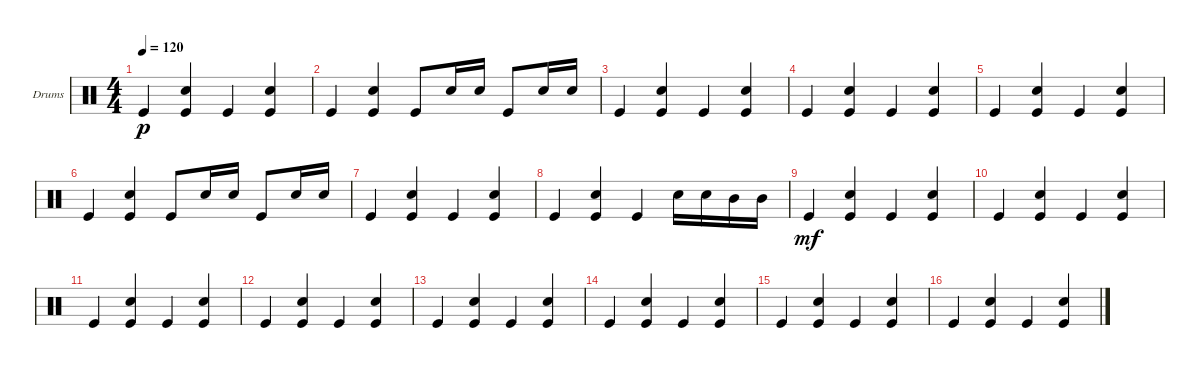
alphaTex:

\bracketExtendMode groupsimilarinstruments
\firstSystemTrackNameOrientation horizontal
\otherSystemsTrackNameOrientation horizontal
\track ("Drumkit" "Drums") {instrument percussion}
\staff {score}
\articulation defaults
\ts (4 4)
\tempo 120
\clef neutral
\ks c "Kick (hit)".4{dy p}
("Snare (hit) 2" "Kick (hit)").4 "Kick (hit)".4 ("Snare (hit) 2" "Kick (hit)").4 |
"Kick (hit)".4 ("Snare (hit) 2" "Kick (hit)").4 "Kick (hit)".8 "Snare (hit) 2".16 "Snare (hit) 2".16 "Kick (hit)".8 "Snare (hit) 2".16 "Snare (hit) 2".16 |
"Kick (hit)".4 ("Snare (hit) 2" "Kick (hit)").4 "Kick (hit)".4 ("Snare (hit) 2" "Kick (hit)").4 |
"Kick (hit)".4 ("Snare (hit) 2" "Kick (hit)").4 "Kick (hit)".4 ("Snare (hit) 2" "Kick (hit)").4 |
"Kick (hit)".4 ("Snare (hit) 2" "Kick (hit)").4 "Kick (hit)".4 ("Snare (hit) 2" "Kick (hit)").4 |
"Kick (hit)".4 ("Snare (hit) 2" "Kick (hit)").4 "Kick (hit)".8 "Snare (hit) 2".16 "Snare (hit) 2".16 "Kick (hit)".8 "Snare (hit) 2".16 "Snare (hit) 2".16 |
"Kick (hit)".4 ("Snare (hit) 2" "Kick (hit)").4 "Kick (hit)".4 ("Snare (hit) 2" "Kick (hit)").4 |
"Kick (hit)".4 ("Snare (hit) 2" "Kick (hit)").4 "Kick (hit)".4 "Snare (hit) 2".16 "Snare (hit) 2".16 "Mid Tom (hit)".16 "Mid Tom (hit)".16 |
"Kick (hit)".4{dy mf} ("Snare (hit) 2" "Kick (hit)").4 "Kick (hit)".4 ("Snare (hit) 2" "Kick (hit)").4 |
"Kick (hit)".4 ("Snare (hit) 2" "Kick (hit)").4 "Kick (hit)".4 ("Snare (hit) 2" "Kick (hit)").4 |
"Kick (hit)".4 ("Snare (hit) 2" "Kick (hit)").4 "Kick (hit)".4 ("Snare (hit) 2" "Kick (hit)").4 |
"Kick (hit)".4 ("Snare (hit) 2" "Kick (hit)").4 "Kick (hit)".4 ("Snare (hit) 2" "Kick (hit)").4 |
"Kick (hit)".4 ("Snare (hit) 2" "Kick (hit)").4 "Kick (hit)".4 ("Snare (hit) 2" "Kick (hit)").4 |
"Kick (hit)".4 ("Snare (hit) 2" "Kick (hit)").4 "Kick (hit)".4 ("Snare (hit) 2" "Kick (hit)").4 |
"Kick (hit)".4 ("Snare (hit) 2" "Kick (hit)").4 "Kick (hit)".4 ("Snare (hit) 2" "Kick (hit)").4 |
"Kick (hit)".4 ("Snare (hit) 2" "Kick (hit)").4 "Kick (hit)".4 ("Snare (hit) 2" "Kick (hit)").4
